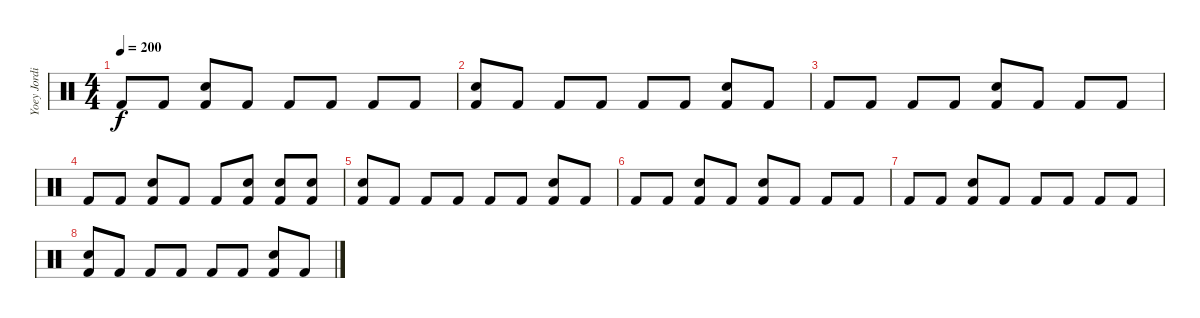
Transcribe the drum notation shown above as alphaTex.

\track ("Yoey Jordison" "Yoey Jordi") {instrument percussion}
\staff {score}
\articulation defaults
\ts (4 4)
\tempo 200
\clef neutral
\ks c "Kick (hit) 2".8{dy f} "Kick (hit) 2".8
("Snare (hit) 2" "Kick (hit) 2").8 "Kick (hit) 2".8 "Kick (hit) 2".8 "Kick (hit) 2".8 "Kick (hit) 2".8 "Kick (hit) 2".8 |
("Electric Snare (hit)" "Kick (hit) 2").8 "Kick (hit) 2".8 "Kick (hit) 2".8 "Kick (hit) 2".8 "Kick (hit) 2".8 "Kick (hit) 2".8 ("Electric Snare (hit)" "Kick (hit) 2").8 "Kick (hit) 2".8 |
"Kick (hit) 2".8 "Kick (hit) 2".8 "Kick (hit) 2".8 "Kick (hit) 2".8 ("Electric Snare (hit)" "Kick (hit) 2").8 "Kick (hit) 2".8 "Kick (hit) 2".8 "Kick (hit) 2".8 |
"Kick (hit) 2".8 "Kick (hit) 2".8 ("Electric Snare (hit)" "Kick (hit) 2").8 "Kick (hit) 2".8 "Kick (hit) 2".8 ("Electric Snare (hit)" "Kick (hit) 2").8 ("Electric Snare (hit)" "Kick (hit) 2").8 ("Electric Snare (hit)" "Kick (hit) 2").8 |
("Snare (hit) 2" "Kick (hit) 2").8 "Kick (hit) 2".8 "Kick (hit) 2".8 "Kick (hit) 2".8 "Kick (hit) 2".8 "Kick (hit) 2".8 ("Snare (hit) 2" "Kick (hit) 2").8 "Kick (hit) 2".8 |
"Kick (hit) 2".8 "Kick (hit) 2".8 ("Electric Snare (hit)" "Kick (hit) 2").8 "Kick (hit) 2".8 ("Snare (hit) 2" "Kick (hit) 2").8 "Kick (hit) 2".8 "Kick (hit) 2".8 "Kick (hit) 2".8 |
"Kick (hit) 2".8 "Kick (hit) 2".8 ("Snare (hit) 2" "Kick (hit) 2").8 "Kick (hit) 2".8 "Kick (hit) 2".8 "Kick (hit) 2".8 "Kick (hit) 2".8 "Kick (hit) 2".8 |
("Electric Snare (hit)" "Kick (hit) 2").8 "Kick (hit) 2".8 "Kick (hit) 2".8 "Kick (hit) 2".8 "Kick (hit) 2".8 "Kick (hit) 2".8 ("Electric Snare (hit)" "Kick (hit) 2").8 "Kick (hit) 2".8
